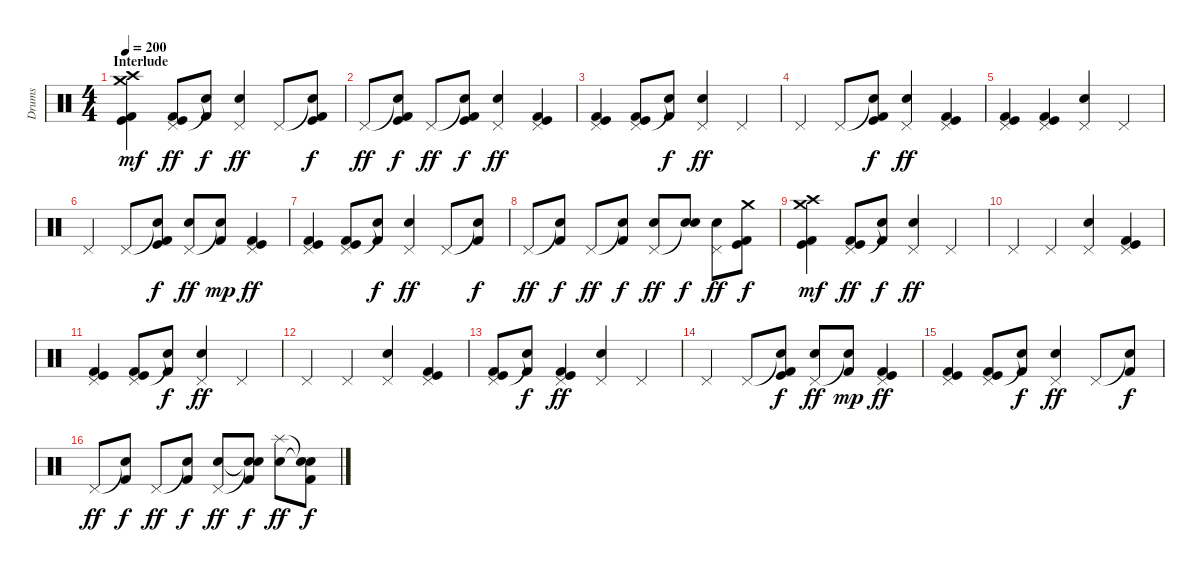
\track ("Drums" "Drums") {instrument percussion}
\staff {score}
\articulation defaults
\ts (4 4)
\section ("" "Interlude")
\tempo 200
\clef neutral
\ks c
("Crash high (hit)" "Crash medium (hit)" "Kick (hit)" "Kick (hit) 2").4{dy mf} ("Pedal Hi-Hat (hit)" "Kick (hit)" "Kick (hit) 2").8{dy ff} ("Snare (hit)"{t} "Kick (hit) 2").8{dy f} ("Pedal Hi-Hat (hit)" "Snare (hit) 2").4{dy ff} "Pedal Hi-Hat (hit)".8 ("Snare (hit)"{t} "Kick (hit)" "Kick (hit) 2").8{dy f} |
"Pedal Hi-Hat (hit)".8{dy ff} ("Snare (hit)"{t} "Kick (hit)" "Kick (hit) 2").8{dy f} "Pedal Hi-Hat (hit)".8{dy ff} ("Snare (hit)"{t} "Kick (hit)" "Kick (hit) 2").8{dy f} ("Pedal Hi-Hat (hit)" "Snare (hit) 2").4{dy ff} ("Pedal Hi-Hat (hit)" "Kick (hit)" "Kick (hit) 2").4 |
("Pedal Hi-Hat (hit)" "Kick (hit)" "Kick (hit) 2").4 ("Pedal Hi-Hat (hit)" "Kick (hit)" "Kick (hit) 2").8 ("Snare (hit)"{t} "Kick (hit) 2").8{dy f} ("Pedal Hi-Hat (hit)" "Snare (hit) 2").4{dy ff} "Pedal Hi-Hat (hit)".4 |
"Pedal Hi-Hat (hit)".4 "Pedal Hi-Hat (hit)".8 ("Snare (hit)"{t} "Kick (hit)" "Kick (hit) 2").8{dy f} ("Pedal Hi-Hat (hit)" "Snare (hit) 2").4{dy ff} ("Pedal Hi-Hat (hit)" "Kick (hit)" "Kick (hit) 2").4 |
("Pedal Hi-Hat (hit)" "Kick (hit)" "Kick (hit) 2").4 ("Pedal Hi-Hat (hit)" "Kick (hit)" "Kick (hit) 2").4 ("Pedal Hi-Hat (hit)" "Snare (hit) 2").4 "Pedal Hi-Hat (hit)".4 |
"Pedal Hi-Hat (hit)".4 "Pedal Hi-Hat (hit)".8 ("Snare (hit)"{t} "Kick (hit)" "Kick (hit) 2").8{dy f} ("Pedal Hi-Hat (hit)" "Snare (hit) 2").8{dy ff} ("Snare (hit)"{t} "Kick (hit) 2").8{dy mp} ("Pedal Hi-Hat (hit)" "Kick (hit)" "Kick (hit) 2").4{dy ff} |
("Pedal Hi-Hat (hit)" "Kick (hit)" "Kick (hit) 2").4 ("Pedal Hi-Hat (hit)" "Kick (hit)" "Kick (hit) 2").8 ("Snare (hit)"{t} "Kick (hit) 2").8{dy f} ("Pedal Hi-Hat (hit)" "Snare (hit) 2").4{dy ff} "Pedal Hi-Hat (hit)".8 ("Snare (hit)"{t} "Kick (hit) 2").8{dy f} |
"Pedal Hi-Hat (hit)".8{dy ff} ("Snare (hit)"{t} "Kick (hit) 2").8{dy f} "Pedal Hi-Hat (hit)".8{dy ff} ("Snare (hit)"{t} "Kick (hit) 2").8{dy f} ("Pedal Hi-Hat (hit)" "Snare (hit) 2").8{dy ff} ("Snare (hit)"{t} "Snare (hit) 2").8{dy f} ("Pedal Hi-Hat (hit)" "Snare (hit) 2").8{dy ff} ("Crash medium (hit)" "Kick (hit)" "Kick (hit) 2").8{dy f} |
("Crash high (hit)" "Crash medium (hit)" "Kick (hit)" "Kick (hit) 2").4{dy mf} ("Pedal Hi-Hat (hit)" "Kick (hit)" "Kick (hit) 2").8{dy ff} ("Snare (hit)"{t} "Kick (hit) 2").8{dy f} ("Pedal Hi-Hat (hit)" "Snare (hit) 2").4{dy ff} "Pedal Hi-Hat (hit)".4 |
"Pedal Hi-Hat (hit)".4 "Pedal Hi-Hat (hit)".4 ("Pedal Hi-Hat (hit)" "Snare (hit) 2").4 ("Pedal Hi-Hat (hit)" "Kick (hit)" "Kick (hit) 2").4 |
("Pedal Hi-Hat (hit)" "Kick (hit)" "Kick (hit) 2").4 ("Pedal Hi-Hat (hit)" "Kick (hit)" "Kick (hit) 2").8 ("Snare (hit)"{t} "Kick (hit) 2").8{dy f} ("Pedal Hi-Hat (hit)" "Snare (hit) 2").4{dy ff} "Pedal Hi-Hat (hit)".4 |
"Pedal Hi-Hat (hit)".4 "Pedal Hi-Hat (hit)".4 ("Pedal Hi-Hat (hit)" "Snare (hit) 2").4 ("Pedal Hi-Hat (hit)" "Kick (hit)" "Kick (hit) 2").4 |
("Pedal Hi-Hat (hit)" "Kick (hit)" "Kick (hit) 2").8 ("Snare (hit)"{t} "Kick (hit) 2").8{dy f} ("Pedal Hi-Hat (hit)" "Kick (hit)" "Kick (hit) 2").4{dy ff} ("Pedal Hi-Hat (hit)" "Snare (hit) 2").4 "Pedal Hi-Hat (hit)".4 |
"Pedal Hi-Hat (hit)".4 "Pedal Hi-Hat (hit)".8 ("Snare (hit)"{t} "Kick (hit)" "Kick (hit) 2").8{dy f} ("Pedal Hi-Hat (hit)" "Snare (hit) 2").8{dy ff} ("Snare (hit)"{t} "Kick (hit) 2").8{dy mp} ("Pedal Hi-Hat (hit)" "Kick (hit)" "Kick (hit) 2").4{dy ff} |
("Pedal Hi-Hat (hit)" "Kick (hit)" "Kick (hit) 2").4 ("Pedal Hi-Hat (hit)" "Kick (hit)" "Kick (hit) 2").8 ("Snare (hit)"{t} "Kick (hit) 2").8{dy f} ("Pedal Hi-Hat (hit)" "Snare (hit) 2").4{dy ff} "Pedal Hi-Hat (hit)".8 ("Snare (hit)"{t} "Kick (hit) 2").8{dy f} |
"Pedal Hi-Hat (hit)".8{dy ff} ("Snare (hit)"{t} "Kick (hit) 2").8{dy f} "Pedal Hi-Hat (hit)".8{dy ff} ("Snare (hit)"{t} "Kick (hit) 2").8{dy f} ("Pedal Hi-Hat (hit)" "Snare (hit) 2").8{dy ff} ("Snare (hit)"{t} "Snare (hit)"{t} "Kick (hit) 2").8{dy f} ("Splash (hit)" "Snare (hit) 2").8{dy ff} ("Snare (hit)"{t} "Snare (hit)"{t} "Kick (hit) 2").8{dy f}
